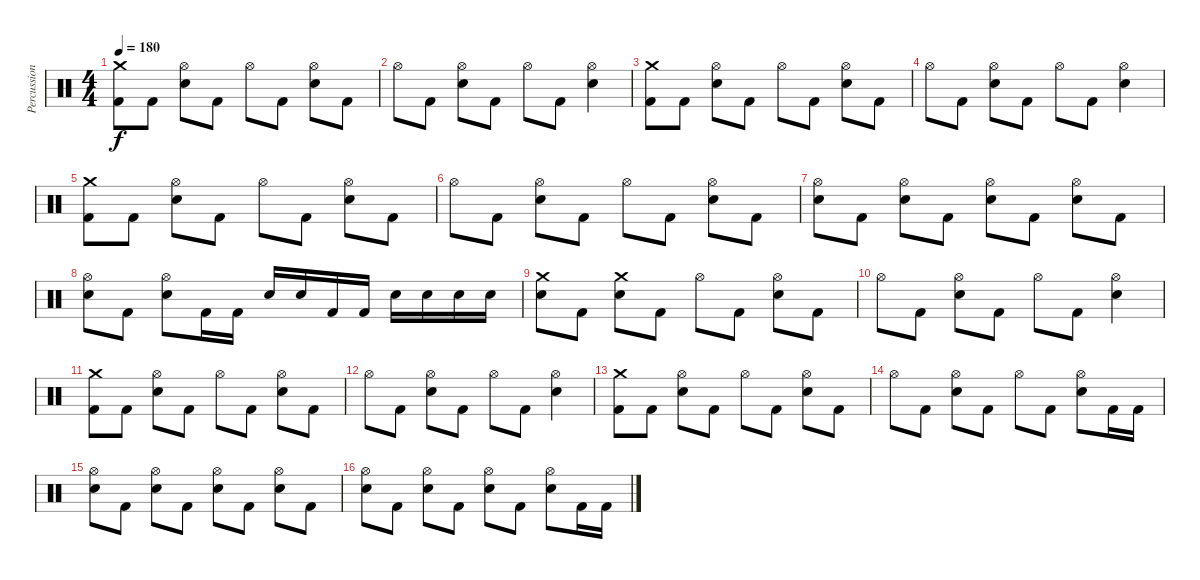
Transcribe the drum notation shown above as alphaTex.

\track ("Percussion" "Percussion") {instrument percussion}
\staff {score}
\articulation defaults
\ts (4 4)
\tempo 180
\clef neutral
\ks c
("Crash medium (hit)" "Kick (hit) 2").8{dy f} "Kick (hit) 2".8 ("Hi-Hat (open)" "Electric Snare (hit)").8 "Kick (hit) 2".8 "Hi-Hat (open)".8 "Kick (hit) 2".8 ("Hi-Hat (open)" "Electric Snare (hit)").8 "Kick (hit) 2".8 |
"Hi-Hat (open)".8 "Kick (hit) 2".8 ("Hi-Hat (open)" "Electric Snare (hit)").8 "Kick (hit) 2".8 "Hi-Hat (open)".8 "Kick (hit) 2".8 ("Hi-Hat (open)" "Electric Snare (hit)").4 |
("Crash medium (hit)" "Kick (hit) 2").8 "Kick (hit) 2".8 ("Hi-Hat (open)" "Electric Snare (hit)").8 "Kick (hit) 2".8 "Hi-Hat (open)".8 "Kick (hit) 2".8 ("Hi-Hat (open)" "Electric Snare (hit)").8 "Kick (hit) 2".8 |
"Hi-Hat (open)".8 "Kick (hit) 2".8 ("Hi-Hat (open)" "Electric Snare (hit)").8 "Kick (hit) 2".8 "Hi-Hat (open)".8 "Kick (hit) 2".8 ("Hi-Hat (open)" "Electric Snare (hit)").4 |
("Crash medium (hit)" "Kick (hit) 2").8 "Kick (hit) 2".8 ("Hi-Hat (open)" "Electric Snare (hit)").8 "Kick (hit) 2".8 "Hi-Hat (open)".8 "Kick (hit) 2".8 ("Hi-Hat (open)" "Electric Snare (hit)").8 "Kick (hit) 2".8 |
"Hi-Hat (open)".8 "Kick (hit) 2".8 ("Hi-Hat (open)" "Electric Snare (hit)").8 "Kick (hit) 2".8 "Hi-Hat (open)".8 "Kick (hit) 2".8 ("Hi-Hat (open)" "Electric Snare (hit)").8 "Kick (hit) 2".8 |
("Hi-Hat (open)" "Electric Snare (hit)").8 "Kick (hit) 2".8 ("Hi-Hat (open)" "Electric Snare (hit)").8 "Kick (hit) 2".8 ("Hi-Hat (open)" "Electric Snare (hit)").8 "Kick (hit) 2".8 ("Hi-Hat (open)" "Electric Snare (hit)").8 "Kick (hit) 2".8 |
("Hi-Hat (open)" "Electric Snare (hit)").8 "Kick (hit) 2".8 ("Hi-Hat (open)" "Electric Snare (hit)").8 "Kick (hit) 2".16 "Kick (hit) 2".16 "Electric Snare (hit)".16 "Electric Snare (hit)".16 "Kick (hit) 2".16 "Kick (hit) 2".16 "Electric Snare (hit)".16 "Electric Snare (hit)".16 "Electric Snare (hit)".16 "Electric Snare (hit)".16 |
("Crash medium (hit)" "Electric Snare (hit)").8 "Kick (hit) 2".8 ("Crash medium (hit)" "Electric Snare (hit)").8 "Kick (hit) 2".8 "Hi-Hat (open)".8 "Kick (hit) 2".8 ("Hi-Hat (open)" "Electric Snare (hit)").8 "Kick (hit) 2".8 |
"Hi-Hat (open)".8 "Kick (hit) 2".8 ("Hi-Hat (open)" "Electric Snare (hit)").8 "Kick (hit) 2".8 "Hi-Hat (open)".8 "Kick (hit) 2".8 ("Hi-Hat (open)" "Electric Snare (hit)").4 |
("Crash medium (hit)" "Kick (hit) 2").8 "Kick (hit) 2".8 ("Hi-Hat (open)" "Electric Snare (hit)").8 "Kick (hit) 2".8 "Hi-Hat (open)".8 "Kick (hit) 2".8 ("Hi-Hat (open)" "Electric Snare (hit)").8 "Kick (hit) 2".8 |
"Hi-Hat (open)".8 "Kick (hit) 2".8 ("Hi-Hat (open)" "Electric Snare (hit)").8 "Kick (hit) 2".8 "Hi-Hat (open)".8 "Kick (hit) 2".8 ("Hi-Hat (open)" "Electric Snare (hit)").4 |
("Crash medium (hit)" "Kick (hit) 2").8 "Kick (hit) 2".8 ("Hi-Hat (open)" "Electric Snare (hit)").8 "Kick (hit) 2".8 "Hi-Hat (open)".8 "Kick (hit) 2".8 ("Hi-Hat (open)" "Electric Snare (hit)").8 "Kick (hit) 2".8 |
"Hi-Hat (open)".8 "Kick (hit) 2".8 ("Hi-Hat (open)" "Electric Snare (hit)").8 "Kick (hit) 2".8 "Hi-Hat (open)".8 "Kick (hit) 2".8 ("Hi-Hat (open)" "Electric Snare (hit)").8 "Kick (hit) 2".16 "Kick (hit) 2".16 |
("Hi-Hat (open)" "Electric Snare (hit)").8 "Kick (hit) 2".8 ("Hi-Hat (open)" "Electric Snare (hit)").8 "Kick (hit) 2".8 ("Hi-Hat (open)" "Electric Snare (hit)").8 "Kick (hit) 2".8 ("Hi-Hat (open)" "Electric Snare (hit)").8 "Kick (hit) 2".8 |
("Hi-Hat (open)" "Electric Snare (hit)").8 "Kick (hit) 2".8 ("Hi-Hat (open)" "Electric Snare (hit)").8 "Kick (hit) 2".8 ("Hi-Hat (open)" "Electric Snare (hit)").8 "Kick (hit) 2".8 ("Hi-Hat (open)" "Electric Snare (hit)").8 "Kick (hit) 2".16 "Kick (hit) 2".16
